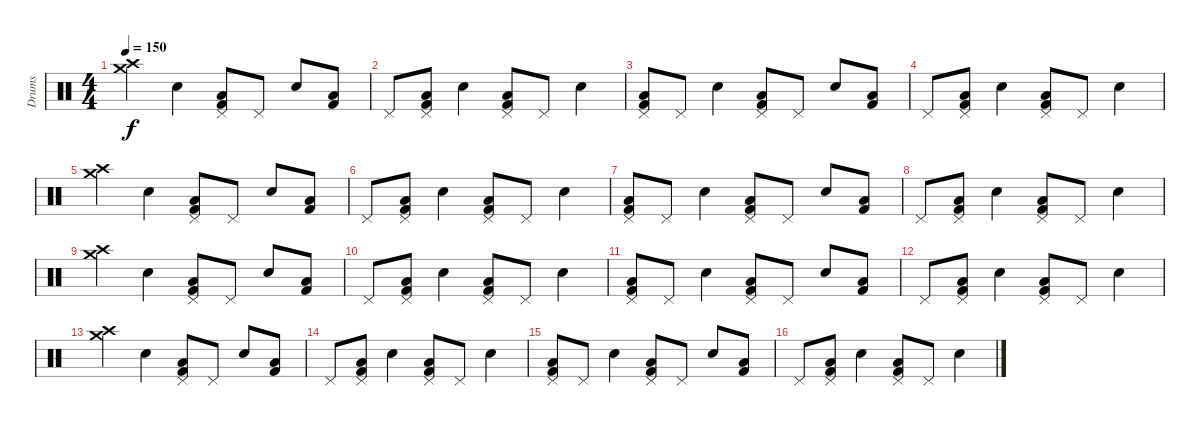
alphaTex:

\track ("Drums" "Drums") {instrument percussion}
\staff {score}
\articulation defaults
\ts (4 4)
\tempo 150
\clef neutral
\ks c
("Crash high (hit)" "Crash medium (hit)").4{dy f} "Snare (hit) 2".4 ("Pedal Hi-Hat (hit)" "Low Floor Tom (hit)" "Kick (hit) 2").8 "Pedal Hi-Hat (hit)".8 "Snare (hit) 2".8 ("Low Floor Tom (hit)" "Kick (hit) 2").8 |
"Pedal Hi-Hat (hit)".8 ("Pedal Hi-Hat (hit)" "Low Floor Tom (hit)" "Kick (hit) 2").8 "Snare (hit) 2".4 ("Pedal Hi-Hat (hit)" "Low Floor Tom (hit)" "Kick (hit) 2").8 "Pedal Hi-Hat (hit)".8 "Snare (hit) 2".4 |
("Pedal Hi-Hat (hit)" "Low Floor Tom (hit)" "Kick (hit) 2").8 "Pedal Hi-Hat (hit)".8 "Snare (hit) 2".4 ("Pedal Hi-Hat (hit)" "Low Floor Tom (hit)" "Kick (hit) 2").8 "Pedal Hi-Hat (hit)".8 "Snare (hit) 2".8 ("Low Floor Tom (hit)" "Kick (hit) 2").8 |
"Pedal Hi-Hat (hit)".8 ("Pedal Hi-Hat (hit)" "Low Floor Tom (hit)" "Kick (hit) 2").8 "Snare (hit) 2".4 ("Pedal Hi-Hat (hit)" "Low Floor Tom (hit)" "Kick (hit) 2").8 "Pedal Hi-Hat (hit)".8 "Snare (hit) 2".4 |
("Crash high (hit)" "Crash medium (hit)").4 "Snare (hit) 2".4 ("Pedal Hi-Hat (hit)" "Low Floor Tom (hit)" "Kick (hit) 2").8 "Pedal Hi-Hat (hit)".8 "Snare (hit) 2".8 ("Low Floor Tom (hit)" "Kick (hit) 2").8 |
"Pedal Hi-Hat (hit)".8 ("Pedal Hi-Hat (hit)" "Low Floor Tom (hit)" "Kick (hit) 2").8 "Snare (hit) 2".4 ("Pedal Hi-Hat (hit)" "Low Floor Tom (hit)" "Kick (hit) 2").8 "Pedal Hi-Hat (hit)".8 "Snare (hit) 2".4 |
("Pedal Hi-Hat (hit)" "Low Floor Tom (hit)" "Kick (hit) 2").8 "Pedal Hi-Hat (hit)".8 "Snare (hit) 2".4 ("Pedal Hi-Hat (hit)" "Low Floor Tom (hit)" "Kick (hit) 2").8 "Pedal Hi-Hat (hit)".8 "Snare (hit) 2".8 ("Low Floor Tom (hit)" "Kick (hit) 2").8 |
"Pedal Hi-Hat (hit)".8 ("Pedal Hi-Hat (hit)" "Low Floor Tom (hit)" "Kick (hit) 2").8 "Snare (hit) 2".4 ("Pedal Hi-Hat (hit)" "Low Floor Tom (hit)" "Kick (hit) 2").8 "Pedal Hi-Hat (hit)".8 "Snare (hit) 2".4 |
("Crash high (hit)" "Crash medium (hit)").4 "Snare (hit) 2".4 ("Pedal Hi-Hat (hit)" "Low Floor Tom (hit)" "Kick (hit) 2").8 "Pedal Hi-Hat (hit)".8 "Snare (hit) 2".8 ("Low Floor Tom (hit)" "Kick (hit) 2").8 |
"Pedal Hi-Hat (hit)".8 ("Pedal Hi-Hat (hit)" "Low Floor Tom (hit)" "Kick (hit) 2").8 "Snare (hit) 2".4 ("Pedal Hi-Hat (hit)" "Low Floor Tom (hit)" "Kick (hit) 2").8 "Pedal Hi-Hat (hit)".8 "Snare (hit) 2".4 |
("Pedal Hi-Hat (hit)" "Low Floor Tom (hit)" "Kick (hit) 2").8 "Pedal Hi-Hat (hit)".8 "Snare (hit) 2".4 ("Pedal Hi-Hat (hit)" "Low Floor Tom (hit)" "Kick (hit) 2").8 "Pedal Hi-Hat (hit)".8 "Snare (hit) 2".8 ("Low Floor Tom (hit)" "Kick (hit) 2").8 |
"Pedal Hi-Hat (hit)".8 ("Pedal Hi-Hat (hit)" "Low Floor Tom (hit)" "Kick (hit) 2").8 "Snare (hit) 2".4 ("Pedal Hi-Hat (hit)" "Low Floor Tom (hit)" "Kick (hit) 2").8 "Pedal Hi-Hat (hit)".8 "Snare (hit) 2".4 |
("Crash high (hit)" "Crash medium (hit)").4 "Snare (hit) 2".4 ("Pedal Hi-Hat (hit)" "Low Floor Tom (hit)" "Kick (hit) 2").8 "Pedal Hi-Hat (hit)".8 "Snare (hit) 2".8 ("Low Floor Tom (hit)" "Kick (hit) 2").8 |
"Pedal Hi-Hat (hit)".8 ("Pedal Hi-Hat (hit)" "Low Floor Tom (hit)" "Kick (hit) 2").8 "Snare (hit) 2".4 ("Pedal Hi-Hat (hit)" "Low Floor Tom (hit)" "Kick (hit) 2").8 "Pedal Hi-Hat (hit)".8 "Snare (hit) 2".4 |
("Pedal Hi-Hat (hit)" "Low Floor Tom (hit)" "Kick (hit) 2").8 "Pedal Hi-Hat (hit)".8 "Snare (hit) 2".4 ("Pedal Hi-Hat (hit)" "Low Floor Tom (hit)" "Kick (hit) 2").8 "Pedal Hi-Hat (hit)".8 "Snare (hit) 2".8 ("Low Floor Tom (hit)" "Kick (hit) 2").8 |
"Pedal Hi-Hat (hit)".8 ("Pedal Hi-Hat (hit)" "Low Floor Tom (hit)" "Kick (hit) 2").8 "Snare (hit) 2".4 ("Pedal Hi-Hat (hit)" "Low Floor Tom (hit)" "Kick (hit) 2").8 "Pedal Hi-Hat (hit)".8 "Snare (hit) 2".4
